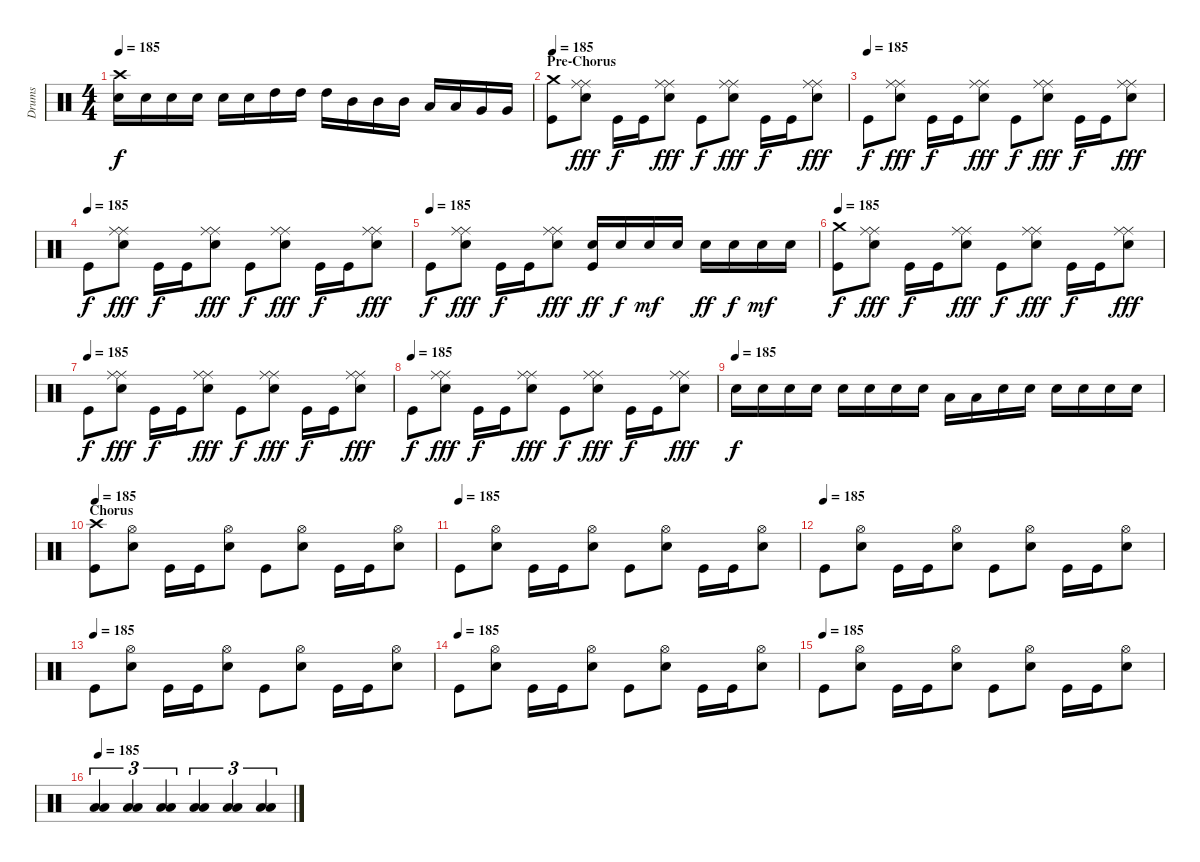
\track ("Drums" "Drums") {instrument percussion}
\staff {score}
\articulation defaults
\ts (4 4)
\tempo 185
\clef neutral
\ks c
("Crash high (hit)" "Electric Snare (hit)").16{dy f} "Electric Snare (hit)".16 "Electric Snare (hit)".16 "Electric Snare (hit)".16 "Electric Snare (hit)".16 "Electric Snare (hit)".16 "High Tom (hit)".16 "High Tom (hit)".16 "High Tom (hit)".16 "Mid Tom (hit)".16 "Mid Tom (hit)".16 "Mid Tom (hit)".16 "Low Tom (hit)".16 "Low Tom (hit)".16 "Very Low Tom (hit)".16 "Very Low Tom (hit)".16 |
\section ("" "Pre-Chorus")
\tempo 185
("Crash medium (hit)" "Kick (hit)").8 ("Ride (middle)" "Ride (middle)" "Electric Snare (hit)").8{dy fff} "Kick (hit)".16{dy f} "Kick (hit)".16 ("Ride (middle)" "Ride (middle)" "Electric Snare (hit)").8{dy fff} "Kick (hit)".8{dy f} ("Ride (middle)" "Ride (middle)" "Electric Snare (hit)").8{dy fff} "Kick (hit)".16{dy f} "Kick (hit)".16 ("Ride (middle)" "Ride (middle)" "Electric Snare (hit)").8{dy fff} |
\tempo (185)
"Kick (hit)".8{dy f} ("Ride (middle)" "Ride (middle)" "Electric Snare (hit)").8{dy fff} "Kick (hit)".16{dy f} "Kick (hit)".16 ("Ride (middle)" "Ride (middle)" "Electric Snare (hit)").8{dy fff} "Kick (hit)".8{dy f} ("Ride (middle)" "Ride (middle)" "Electric Snare (hit)").8{dy fff} "Kick (hit)".16{dy f} "Kick (hit)".16 ("Ride (middle)" "Ride (middle)" "Electric Snare (hit)").8{dy fff} |
\tempo (185)
"Kick (hit)".8{dy f} ("Ride (middle)" "Ride (middle)" "Electric Snare (hit)").8{dy fff} "Kick (hit)".16{dy f} "Kick (hit)".16 ("Ride (middle)" "Ride (middle)" "Electric Snare (hit)").8{dy fff} "Kick (hit)".8{dy f} ("Ride (middle)" "Ride (middle)" "Electric Snare (hit)").8{dy fff} "Kick (hit)".16{dy f} "Kick (hit)".16 ("Ride (middle)" "Ride (middle)" "Electric Snare (hit)").8{dy fff} |
\tempo (185)
"Kick (hit)".8{dy f} ("Ride (middle)" "Ride (middle)" "Electric Snare (hit)").8{dy fff} "Kick (hit)".16{dy f} "Kick (hit)".16 ("Ride (middle)" "Ride (middle)" "Electric Snare (hit)").8{dy fff} ("Electric Snare (hit)" "Kick (hit)").16{dy ff} "Electric Snare (hit)".16{dy f} "Electric Snare (hit)".16{dy mf} "Electric Snare (hit)".16 "Electric Snare (hit)".16{dy ff} "Electric Snare (hit)".16{dy f} "Electric Snare (hit)".16{dy mf} "Electric Snare (hit)".16 |
\tempo 185
("Crash medium (hit)" "Kick (hit)").8{dy f} ("Ride (middle)" "Ride (middle)" "Electric Snare (hit)").8{dy fff} "Kick (hit)".16{dy f} "Kick (hit)".16 ("Ride (middle)" "Ride (middle)" "Electric Snare (hit)").8{dy fff} "Kick (hit)".8{dy f} ("Ride (middle)" "Ride (middle)" "Electric Snare (hit)").8{dy fff} "Kick (hit)".16{dy f} "Kick (hit)".16 ("Ride (middle)" "Ride (middle)" "Electric Snare (hit)").8{dy fff} |
\tempo (185)
"Kick (hit)".8{dy f} ("Ride (middle)" "Ride (middle)" "Electric Snare (hit)").8{dy fff} "Kick (hit)".16{dy f} "Kick (hit)".16 ("Ride (middle)" "Ride (middle)" "Electric Snare (hit)").8{dy fff} "Kick (hit)".8{dy f} ("Ride (middle)" "Ride (middle)" "Electric Snare (hit)").8{dy fff} "Kick (hit)".16{dy f} "Kick (hit)".16 ("Ride (middle)" "Ride (middle)" "Electric Snare (hit)").8{dy fff} |
\tempo (185)
"Kick (hit)".8{dy f} ("Ride (middle)" "Ride (middle)" "Electric Snare (hit)").8{dy fff} "Kick (hit)".16{dy f} "Kick (hit)".16 ("Ride (middle)" "Ride (middle)" "Electric Snare (hit)").8{dy fff} "Kick (hit)".8{dy f} ("Ride (middle)" "Ride (middle)" "Electric Snare (hit)").8{dy fff} "Kick (hit)".16{dy f} "Kick (hit)".16 ("Ride (middle)" "Ride (middle)" "Electric Snare (hit)").8{dy fff} |
\tempo (185)
"Electric Snare (hit)".16{dy f} "Electric Snare (hit)".16 "Electric Snare (hit)".16 "Electric Snare (hit)".16 "Electric Snare (hit)".16 "Electric Snare (hit)".16 "Electric Snare (hit)".16 "Electric Snare (hit)".16 "Low Tom (hit)".16 "Low Tom (hit)".16 "Electric Snare (hit)".16 "Electric Snare (hit)".16 "Electric Snare (hit)".16 "Electric Snare (hit)".16 "Electric Snare (hit)".16 "Electric Snare (hit)".16 |
\section ("" "Chorus")
\tempo 185
("Crash high (hit)" "Kick (hit)").8 ("Hi-Hat (open)" "Electric Snare (hit)").8 "Kick (hit)".16 "Kick (hit)".16 ("Hi-Hat (open)" "Electric Snare (hit)").8 "Kick (hit)".8 ("Hi-Hat (open)" "Electric Snare (hit)").8 "Kick (hit)".16 "Kick (hit)".16 ("Hi-Hat (open)" "Electric Snare (hit)").8 |
\tempo (185)
"Kick (hit)".8 ("Hi-Hat (open)" "Electric Snare (hit)").8 "Kick (hit)".16 "Kick (hit)".16 ("Hi-Hat (open)" "Electric Snare (hit)").8 "Kick (hit)".8 ("Hi-Hat (open)" "Electric Snare (hit)").8 "Kick (hit)".16 "Kick (hit)".16 ("Hi-Hat (open)" "Electric Snare (hit)").8 |
\tempo (185)
"Kick (hit)".8 ("Hi-Hat (open)" "Electric Snare (hit)").8 "Kick (hit)".16 "Kick (hit)".16 ("Hi-Hat (open)" "Electric Snare (hit)").8 "Kick (hit)".8 ("Hi-Hat (open)" "Electric Snare (hit)").8 "Kick (hit)".16 "Kick (hit)".16 ("Hi-Hat (open)" "Electric Snare (hit)").8 |
\tempo (185)
"Kick (hit)".8 ("Hi-Hat (open)" "Electric Snare (hit)").8 "Kick (hit)".16 "Kick (hit)".16 ("Hi-Hat (open)" "Electric Snare (hit)").8 "Kick (hit)".8 ("Hi-Hat (open)" "Electric Snare (hit)").8 "Kick (hit)".16 "Kick (hit)".16 ("Hi-Hat (open)" "Electric Snare (hit)").8 |
\tempo (185)
"Kick (hit)".8 ("Hi-Hat (open)" "Electric Snare (hit)").8 "Kick (hit)".16 "Kick (hit)".16 ("Hi-Hat (open)" "Electric Snare (hit)").8 "Kick (hit)".8 ("Hi-Hat (open)" "Electric Snare (hit)").8 "Kick (hit)".16 "Kick (hit)".16 ("Hi-Hat (open)" "Electric Snare (hit)").8 |
\tempo (185)
"Kick (hit)".8 ("Hi-Hat (open)" "Electric Snare (hit)").8 "Kick (hit)".16 "Kick (hit)".16 ("Hi-Hat (open)" "Electric Snare (hit)").8 "Kick (hit)".8 ("Hi-Hat (open)" "Electric Snare (hit)").8 "Kick (hit)".16 "Kick (hit)".16 ("Hi-Hat (open)" "Electric Snare (hit)").8 |
\tempo 150
\tempo 185
("Low Tom (hit)" "Low Tom (hit)").4{tu (3 2)} ("Low Tom (hit)" "Low Tom (hit)").4{tu (3 2)} ("Low Tom (hit)" "Low Tom (hit)").4{tu (3 2)} ("Low Tom (hit)" "Low Tom (hit)").4{tu (3 2)} ("Low Tom (hit)" "Low Tom (hit)").4{tu (3 2)} ("Low Tom (hit)" "Low Tom (hit)").4{tu (3 2)}
